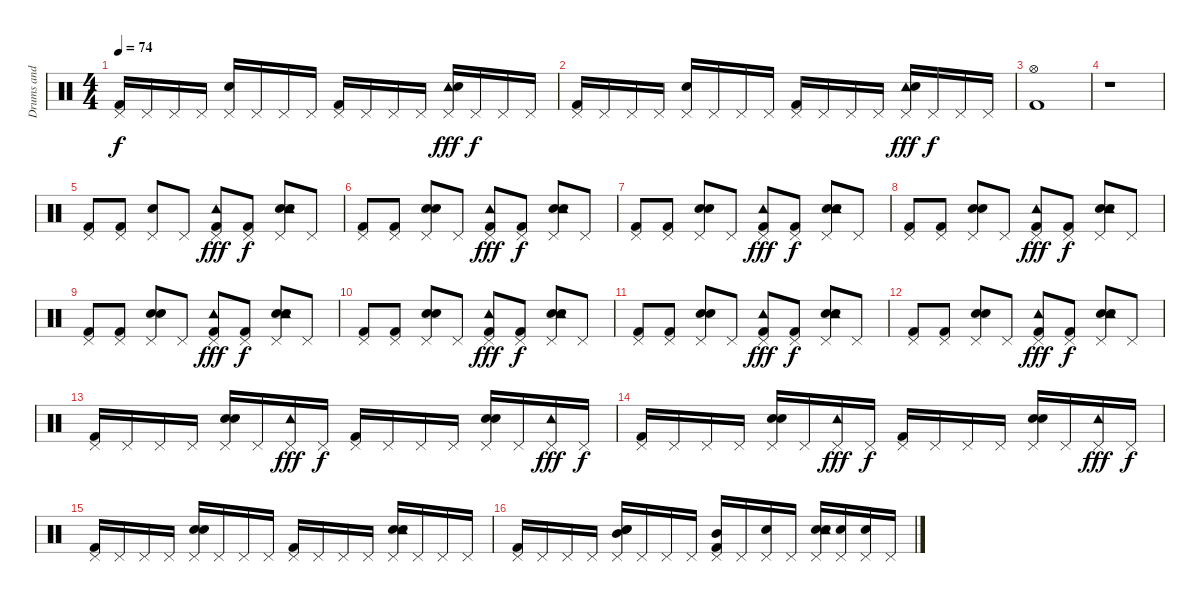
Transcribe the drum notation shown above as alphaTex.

\track ("Drums and Percussion" "Drums and ") {instrument percussion}
\staff {score}
\articulation defaults
\ts (4 4)
\tempo 74
\clef neutral
\ks c
("Pedal Hi-Hat (hit)" "Kick (hit) 2").16{dy f} "Pedal Hi-Hat (hit)".16 "Pedal Hi-Hat (hit)".16 "Pedal Hi-Hat (hit)".16 ("Pedal Hi-Hat (hit)" "Snare (hit) 2").16 "Pedal Hi-Hat (hit)".16 "Pedal Hi-Hat (hit)".16 "Pedal Hi-Hat (hit)".16 ("Pedal Hi-Hat (hit)" "Kick (hit) 2").16 "Pedal Hi-Hat (hit)".16 "Pedal Hi-Hat (hit)".16 "Pedal Hi-Hat (hit)".16 ("Pedal Hi-Hat (hit)" "Tambourine (hit)" "Snare (hit) 2").16{dy fff} "Pedal Hi-Hat (hit)".16{dy f} "Pedal Hi-Hat (hit)".16 "Pedal Hi-Hat (hit)".16 |
("Pedal Hi-Hat (hit)" "Kick (hit) 2").16 "Pedal Hi-Hat (hit)".16 "Pedal Hi-Hat (hit)".16 "Pedal Hi-Hat (hit)".16 ("Pedal Hi-Hat (hit)" "Snare (hit) 2").16 "Pedal Hi-Hat (hit)".16 "Pedal Hi-Hat (hit)".16 "Pedal Hi-Hat (hit)".16 ("Pedal Hi-Hat (hit)" "Kick (hit) 2").16 "Pedal Hi-Hat (hit)".16 "Pedal Hi-Hat (hit)".16 "Pedal Hi-Hat (hit)".16 ("Pedal Hi-Hat (hit)" "Tambourine (hit)" "Snare (hit) 2").16{dy fff} "Pedal Hi-Hat (hit)".16{dy f} "Pedal Hi-Hat (hit)".16 "Pedal Hi-Hat (hit)".16 |
("Hi-Hat (open)" "Kick (hit) 2").1 |
r.1 |
("Pedal Hi-Hat (hit)" "Kick (hit) 2").8 ("Pedal Hi-Hat (hit)" "Kick (hit) 2").8 ("Pedal Hi-Hat (hit)" "Snare (hit) 2").8 "Pedal Hi-Hat (hit)".8 ("Pedal Hi-Hat (hit)" "Tambourine (hit)" "Kick (hit) 2").8{dy fff} ("Pedal Hi-Hat (hit)" "Kick (hit) 2").8{dy f} ("Hand Clap (hit)" "Pedal Hi-Hat (hit)" "Tambourine (hit)" "Snare (hit) 2").8 "Pedal Hi-Hat (hit)".8 |
("Pedal Hi-Hat (hit)" "Kick (hit) 2").8 ("Pedal Hi-Hat (hit)" "Kick (hit) 2").8 ("Hand Clap (hit)" "Pedal Hi-Hat (hit)" "Snare (hit) 2").8 "Pedal Hi-Hat (hit)".8 ("Pedal Hi-Hat (hit)" "Tambourine (hit)" "Kick (hit) 2").8{dy fff} ("Pedal Hi-Hat (hit)" "Kick (hit) 2").8{dy f} ("Hand Clap (hit)" "Pedal Hi-Hat (hit)" "Tambourine (hit)" "Snare (hit) 2").8 "Pedal Hi-Hat (hit)".8 |
("Pedal Hi-Hat (hit)" "Kick (hit) 2").8 ("Pedal Hi-Hat (hit)" "Kick (hit) 2").8 ("Hand Clap (hit)" "Pedal Hi-Hat (hit)" "Snare (hit) 2").8 "Pedal Hi-Hat (hit)".8 ("Pedal Hi-Hat (hit)" "Tambourine (hit)" "Kick (hit) 2").8{dy fff} ("Pedal Hi-Hat (hit)" "Kick (hit) 2").8{dy f} ("Hand Clap (hit)" "Pedal Hi-Hat (hit)" "Tambourine (hit)" "Snare (hit) 2").8 "Pedal Hi-Hat (hit)".8 |
("Pedal Hi-Hat (hit)" "Kick (hit) 2").8 ("Pedal Hi-Hat (hit)" "Kick (hit) 2").8 ("Hand Clap (hit)" "Pedal Hi-Hat (hit)" "Snare (hit) 2").8 "Pedal Hi-Hat (hit)".8 ("Pedal Hi-Hat (hit)" "Tambourine (hit)" "Kick (hit) 2").8{dy fff} ("Pedal Hi-Hat (hit)" "Kick (hit) 2").8{dy f} ("Hand Clap (hit)" "Pedal Hi-Hat (hit)" "Tambourine (hit)" "Snare (hit) 2").8 "Pedal Hi-Hat (hit)".8 |
("Pedal Hi-Hat (hit)" "Kick (hit) 2").8 ("Pedal Hi-Hat (hit)" "Kick (hit) 2").8 ("Hand Clap (hit)" "Pedal Hi-Hat (hit)" "Snare (hit) 2").8 "Pedal Hi-Hat (hit)".8 ("Pedal Hi-Hat (hit)" "Tambourine (hit)" "Kick (hit) 2").8{dy fff} ("Pedal Hi-Hat (hit)" "Kick (hit) 2").8{dy f} ("Hand Clap (hit)" "Pedal Hi-Hat (hit)" "Tambourine (hit)" "Snare (hit) 2").8 "Pedal Hi-Hat (hit)".8 |
("Pedal Hi-Hat (hit)" "Kick (hit) 2").8 ("Pedal Hi-Hat (hit)" "Kick (hit) 2").8 ("Hand Clap (hit)" "Pedal Hi-Hat (hit)" "Snare (hit) 2").8 "Pedal Hi-Hat (hit)".8 ("Pedal Hi-Hat (hit)" "Tambourine (hit)" "Kick (hit) 2").8{dy fff} ("Pedal Hi-Hat (hit)" "Kick (hit) 2").8{dy f} ("Hand Clap (hit)" "Pedal Hi-Hat (hit)" "Tambourine (hit)" "Snare (hit) 2").8 "Pedal Hi-Hat (hit)".8 |
("Pedal Hi-Hat (hit)" "Kick (hit) 2").8 ("Pedal Hi-Hat (hit)" "Kick (hit) 2").8 ("Hand Clap (hit)" "Pedal Hi-Hat (hit)" "Snare (hit) 2").8 "Pedal Hi-Hat (hit)".8 ("Pedal Hi-Hat (hit)" "Tambourine (hit)" "Kick (hit) 2").8{dy fff} ("Pedal Hi-Hat (hit)" "Kick (hit) 2").8{dy f} ("Hand Clap (hit)" "Pedal Hi-Hat (hit)" "Tambourine (hit)" "Snare (hit) 2").8 "Pedal Hi-Hat (hit)".8 |
("Pedal Hi-Hat (hit)" "Kick (hit) 2").8 ("Pedal Hi-Hat (hit)" "Kick (hit) 2").8 ("Hand Clap (hit)" "Pedal Hi-Hat (hit)" "Snare (hit) 2").8 "Pedal Hi-Hat (hit)".8 ("Pedal Hi-Hat (hit)" "Tambourine (hit)" "Kick (hit) 2").8{dy fff} ("Pedal Hi-Hat (hit)" "Kick (hit) 2").8{dy f} ("Hand Clap (hit)" "Pedal Hi-Hat (hit)" "Tambourine (hit)" "Snare (hit) 2").8 "Pedal Hi-Hat (hit)".8 |
("Pedal Hi-Hat (hit)" "Kick (hit) 2").16 "Pedal Hi-Hat (hit)".16 "Pedal Hi-Hat (hit)".16 "Pedal Hi-Hat (hit)".16 ("Hand Clap (hit)" "Pedal Hi-Hat (hit)" "Snare (hit) 2").16 "Pedal Hi-Hat (hit)".16 ("Pedal Hi-Hat (hit)" "Tambourine (hit)").16{dy fff} "Pedal Hi-Hat (hit)".16{dy f} ("Pedal Hi-Hat (hit)" "Kick (hit) 2").16 "Pedal Hi-Hat (hit)".16 "Pedal Hi-Hat (hit)".16 "Pedal Hi-Hat (hit)".16 ("Hand Clap (hit)" "Pedal Hi-Hat (hit)" "Snare (hit) 2").16 "Pedal Hi-Hat (hit)".16 ("Pedal Hi-Hat (hit)" "Tambourine (hit)").16{dy fff} "Pedal Hi-Hat (hit)".16{dy f} |
("Pedal Hi-Hat (hit)" "Kick (hit) 2").16 "Pedal Hi-Hat (hit)".16 "Pedal Hi-Hat (hit)".16 "Pedal Hi-Hat (hit)".16 ("Hand Clap (hit)" "Pedal Hi-Hat (hit)" "Snare (hit) 2").16 "Pedal Hi-Hat (hit)".16 ("Pedal Hi-Hat (hit)" "Tambourine (hit)").16{dy fff} "Pedal Hi-Hat (hit)".16{dy f} ("Pedal Hi-Hat (hit)" "Kick (hit) 2").16 "Pedal Hi-Hat (hit)".16 "Pedal Hi-Hat (hit)".16 "Pedal Hi-Hat (hit)".16 ("Hand Clap (hit)" "Pedal Hi-Hat (hit)" "Snare (hit) 2").16 "Pedal Hi-Hat (hit)".16 ("Pedal Hi-Hat (hit)" "Tambourine (hit)").16{dy fff} "Pedal Hi-Hat (hit)".16{dy f} |
("Pedal Hi-Hat (hit)" "Kick (hit) 2").16 "Pedal Hi-Hat (hit)".16 "Pedal Hi-Hat (hit)".16 "Pedal Hi-Hat (hit)".16 ("Hand Clap (hit)" "Pedal Hi-Hat (hit)" "Snare (hit) 2").16 "Pedal Hi-Hat (hit)".16 "Pedal Hi-Hat (hit)".16 "Pedal Hi-Hat (hit)".16 ("Pedal Hi-Hat (hit)" "Kick (hit) 2").16 "Pedal Hi-Hat (hit)".16 "Pedal Hi-Hat (hit)".16 "Pedal Hi-Hat (hit)".16 ("Hand Clap (hit)" "Pedal Hi-Hat (hit)" "Tambourine (hit)" "Snare (hit) 2").16 "Pedal Hi-Hat (hit)".16 "Pedal Hi-Hat (hit)".16 "Pedal Hi-Hat (hit)".16 |
("Pedal Hi-Hat (hit)" "Kick (hit) 2").16 "Pedal Hi-Hat (hit)".16 "Pedal Hi-Hat (hit)".16 "Pedal Hi-Hat (hit)".16 ("Hand Clap (hit)" "Pedal Hi-Hat (hit)" "Mid Tom (hit)" "Snare (hit) 2").16 "Pedal Hi-Hat (hit)".16 "Pedal Hi-Hat (hit)".16 "Pedal Hi-Hat (hit)".16 ("Pedal Hi-Hat (hit)" "Mid Tom (hit)" "Kick (hit) 2").16 "Pedal Hi-Hat (hit)".16 ("Pedal Hi-Hat (hit)" "Snare (hit) 2").16 "Pedal Hi-Hat (hit)".16 ("Hand Clap (hit)" "Pedal Hi-Hat (hit)" "Tambourine (hit)" "Snare (hit) 2").16 ("Pedal Hi-Hat (hit)" "Snare (hit) 2").16 ("Pedal Hi-Hat (hit)" "Snare (hit) 2").16 "Pedal Hi-Hat (hit)".16
